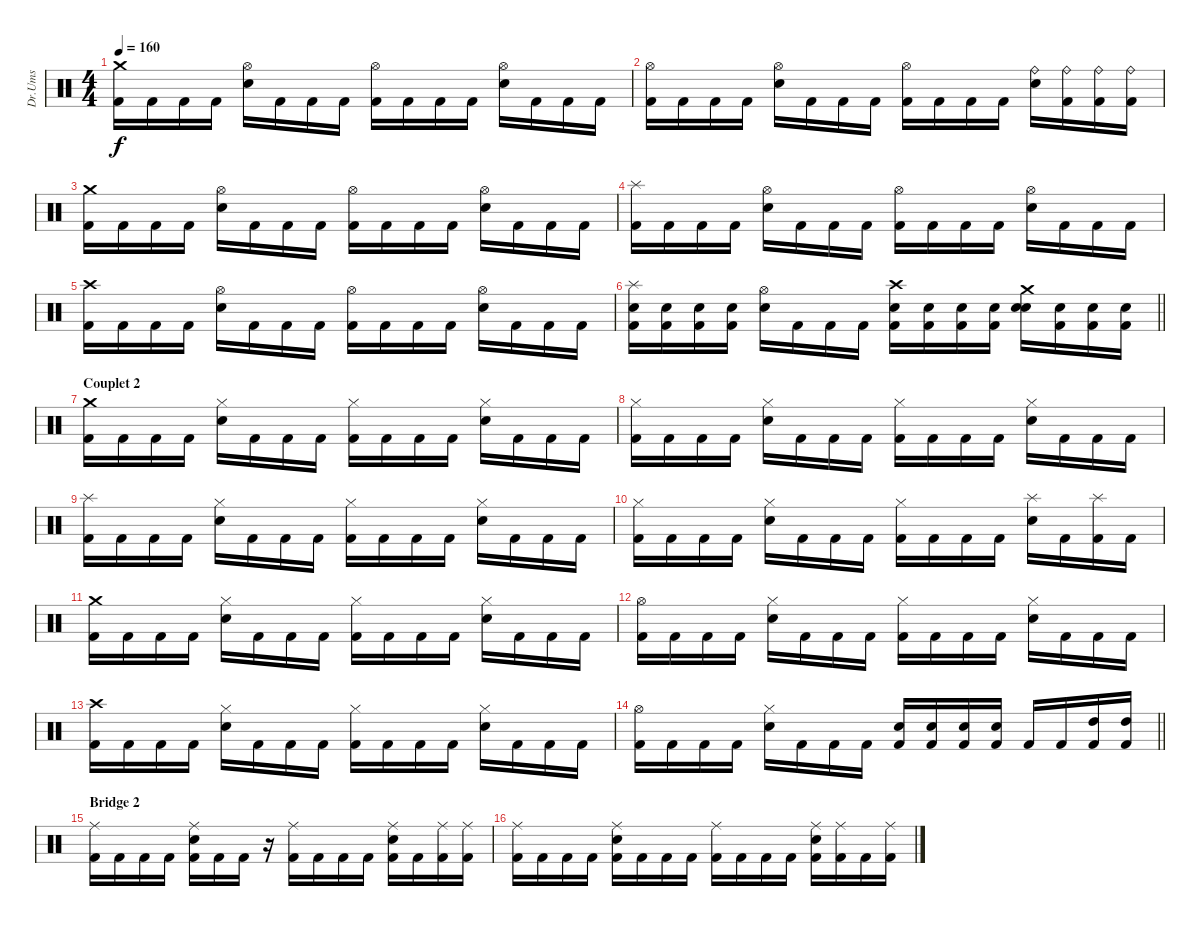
\track ("Dr.Ums" "Dr.Ums") {instrument percussion}
\staff {score}
\articulation defaults
\ts (4 4)
\tempo 160
\clef neutral
\ks c
("Kick (hit) 2" "Crash medium (hit)").16{dy f} "Kick (hit) 2".16 "Kick (hit) 2".16 "Kick (hit) 2".16 ("Snare (hit) 2" "Hi-Hat (open)").16 "Kick (hit) 2".16 "Kick (hit) 2".16 "Kick (hit) 2".16 ("Kick (hit) 2" "Hi-Hat (open)").16 "Kick (hit) 2".16 "Kick (hit) 2".16 "Kick (hit) 2".16 ("Snare (hit) 2" "Hi-Hat (open)").16 "Kick (hit) 2".16 "Kick (hit) 2".16 "Kick (hit) 2".16 |
("Kick (hit) 2" "Hi-Hat (open)").16 "Kick (hit) 2".16 "Kick (hit) 2".16 "Kick (hit) 2".16 ("Snare (hit) 2" "Hi-Hat (open)").16 "Kick (hit) 2".16 "Kick (hit) 2".16 "Kick (hit) 2".16 ("Kick (hit) 2" "Hi-Hat (open)").16 "Kick (hit) 2".16 "Kick (hit) 2".16 "Kick (hit) 2".16 ("Snare (hit) 2" "Ride (bell)").16 ("Kick (hit) 2" "Ride (bell)").16 ("Kick (hit) 2" "Ride (bell)").16 ("Kick (hit) 2" "Ride (bell)").16 |
("Kick (hit) 2" "Crash medium (hit)").16 "Kick (hit) 2".16 "Kick (hit) 2".16 "Kick (hit) 2".16 ("Snare (hit) 2" "Hi-Hat (open)").16 "Kick (hit) 2".16 "Kick (hit) 2".16 "Kick (hit) 2".16 ("Kick (hit) 2" "Hi-Hat (open)").16 "Kick (hit) 2".16 "Kick (hit) 2".16 "Kick (hit) 2".16 ("Snare (hit) 2" "Hi-Hat (open)").16 "Kick (hit) 2".16 "Kick (hit) 2".16 "Kick (hit) 2".16 |
("Kick (hit) 2" "Splash (hit)").16 "Kick (hit) 2".16 "Kick (hit) 2".16 "Kick (hit) 2".16 ("Snare (hit) 2" "Hi-Hat (open)").16 "Kick (hit) 2".16 "Kick (hit) 2".16 "Kick (hit) 2".16 ("Kick (hit) 2" "Hi-Hat (open)").16 "Kick (hit) 2".16 "Kick (hit) 2".16 "Kick (hit) 2".16 ("Snare (hit) 2" "Hi-Hat (open)").16 "Kick (hit) 2".16 "Kick (hit) 2".16 "Kick (hit) 2".16 |
("Kick (hit) 2" "Crash high (hit)").16 "Kick (hit) 2".16 "Kick (hit) 2".16 "Kick (hit) 2".16 ("Snare (hit) 2" "Hi-Hat (open)").16 "Kick (hit) 2".16 "Kick (hit) 2".16 "Kick (hit) 2".16 ("Kick (hit) 2" "Hi-Hat (open)").16 "Kick (hit) 2".16 "Kick (hit) 2".16 "Kick (hit) 2".16 ("Snare (hit) 2" "Hi-Hat (open)").16 "Kick (hit) 2".16 "Kick (hit) 2".16 "Kick (hit) 2".16 |
\barLineRight lightlight
("Kick (hit) 2" "Splash (hit)" "Snare (hit) 2").16 ("Kick (hit) 2" "Snare (hit) 2").16 ("Kick (hit) 2" "Snare (hit) 2").16 ("Kick (hit) 2" "Snare (hit) 2").16 ("Snare (hit) 2" "Hi-Hat (open)").16 "Kick (hit) 2".16 "Kick (hit) 2".16 "Kick (hit) 2".16 ("Kick (hit) 2" "Snare (hit) 2" "Crash high (hit)").16 ("Kick (hit) 2" "Snare (hit) 2").16 ("Kick (hit) 2" "Snare (hit) 2").16 ("Kick (hit) 2" "Snare (hit) 2").16 ("Snare (hit) 2" "Snare (hit) 2" "Crash medium (hit)").16 ("Kick (hit) 2" "Snare (hit) 2").16 ("Kick (hit) 2" "Snare (hit) 2").16 ("Kick (hit) 2" "Snare (hit) 2").16 |
\section ("" "Couplet 2")
("Kick (hit) 2" "Crash medium (hit)").16 "Kick (hit) 2".16 "Kick (hit) 2".16 "Kick (hit) 2".16 ("Snare (hit) 2" "Hi-Hat (closed)").16 "Kick (hit) 2".16 "Kick (hit) 2".16 "Kick (hit) 2".16 ("Kick (hit) 2" "Hi-Hat (closed)").16 "Kick (hit) 2".16 "Kick (hit) 2".16 "Kick (hit) 2".16 ("Snare (hit) 2" "Hi-Hat (closed)").16 "Kick (hit) 2".16 "Kick (hit) 2".16 "Kick (hit) 2".16 |
("Kick (hit) 2" "Hi-Hat (closed)").16 "Kick (hit) 2".16 "Kick (hit) 2".16 "Kick (hit) 2".16 ("Snare (hit) 2" "Hi-Hat (closed)").16 "Kick (hit) 2".16 "Kick (hit) 2".16 "Kick (hit) 2".16 ("Kick (hit) 2" "Hi-Hat (closed)").16 "Kick (hit) 2".16 "Kick (hit) 2".16 "Kick (hit) 2".16 ("Snare (hit) 2" "Hi-Hat (closed)").16 "Kick (hit) 2".16 "Kick (hit) 2".16 "Kick (hit) 2".16 |
("Kick (hit) 2" "Splash (hit)").16 "Kick (hit) 2".16 "Kick (hit) 2".16 "Kick (hit) 2".16 ("Snare (hit) 2" "Hi-Hat (closed)").16 "Kick (hit) 2".16 "Kick (hit) 2".16 "Kick (hit) 2".16 ("Kick (hit) 2" "Hi-Hat (closed)").16 "Kick (hit) 2".16 "Kick (hit) 2".16 "Kick (hit) 2".16 ("Snare (hit) 2" "Hi-Hat (closed)").16 "Kick (hit) 2".16 "Kick (hit) 2".16 "Kick (hit) 2".16 |
("Kick (hit) 2" "Hi-Hat (closed)").16 "Kick (hit) 2".16 "Kick (hit) 2".16 "Kick (hit) 2".16 ("Snare (hit) 2" "Hi-Hat (closed)").16 "Kick (hit) 2".16 "Kick (hit) 2".16 "Kick (hit) 2".16 ("Kick (hit) 2" "Hi-Hat (closed)").16 "Kick (hit) 2".16 "Kick (hit) 2".16 "Kick (hit) 2".16 ("Snare (hit) 2" "Splash (hit)").16 "Kick (hit) 2".16 ("Kick (hit) 2" "Splash (hit)").16 "Kick (hit) 2".16 |
("Kick (hit) 2" "Crash medium (hit)").16 "Kick (hit) 2".16 "Kick (hit) 2".16 "Kick (hit) 2".16 ("Snare (hit) 2" "Hi-Hat (closed)").16 "Kick (hit) 2".16 "Kick (hit) 2".16 "Kick (hit) 2".16 ("Kick (hit) 2" "Hi-Hat (closed)").16 "Kick (hit) 2".16 "Kick (hit) 2".16 "Kick (hit) 2".16 ("Snare (hit) 2" "Hi-Hat (closed)").16 "Kick (hit) 2".16 "Kick (hit) 2".16 "Kick (hit) 2".16 |
("Kick (hit) 2" "Hi-Hat (open)").16 "Kick (hit) 2".16 "Kick (hit) 2".16 "Kick (hit) 2".16 ("Snare (hit) 2" "Hi-Hat (closed)").16 "Kick (hit) 2".16 "Kick (hit) 2".16 "Kick (hit) 2".16 ("Kick (hit) 2" "Hi-Hat (closed)").16 "Kick (hit) 2".16 "Kick (hit) 2".16 "Kick (hit) 2".16 ("Snare (hit) 2" "Hi-Hat (closed)").16 "Kick (hit) 2".16 "Kick (hit) 2".16 "Kick (hit) 2".16 |
("Kick (hit) 2" "Crash high (hit)").16 "Kick (hit) 2".16 "Kick (hit) 2".16 "Kick (hit) 2".16 ("Snare (hit) 2" "Hi-Hat (closed)").16 "Kick (hit) 2".16 "Kick (hit) 2".16 "Kick (hit) 2".16 ("Kick (hit) 2" "Hi-Hat (closed)").16 "Kick (hit) 2".16 "Kick (hit) 2".16 "Kick (hit) 2".16 ("Snare (hit) 2" "Hi-Hat (closed)").16 "Kick (hit) 2".16 "Kick (hit) 2".16 "Kick (hit) 2".16 |
\barLineRight lightlight
("Kick (hit) 2" "Hi-Hat (open)").16 "Kick (hit) 2".16 "Kick (hit) 2".16 "Kick (hit) 2".16 ("Snare (hit) 2" "Hi-Hat (closed)").16 "Kick (hit) 2".16 "Kick (hit) 2".16 "Kick (hit) 2".16 ("Snare (hit) 2" "Kick (hit) 2").16 ("Snare (hit) 2" "Kick (hit) 2").16 ("Snare (hit) 2" "Kick (hit) 2").16 ("Snare (hit) 2" "Kick (hit) 2").16 "Kick (hit) 2".16 "Kick (hit) 2".16 ("High Tom (hit)" "Kick (hit) 2").16 ("High Tom (hit)" "Kick (hit) 2").16 |
\section ("" "Bridge 2")
("Kick (hit) 2" "Ride (middle)").16 "Kick (hit) 2".16 "Kick (hit) 2".16 "Kick (hit) 2".16 ("Kick (hit) 2" "Ride (middle)" "Snare (hit) 2").16 "Kick (hit) 2".16 "Kick (hit) 2".16 r.16 ("Kick (hit) 2" "Ride (middle)").16 "Kick (hit) 2".16 "Kick (hit) 2".16 "Kick (hit) 2".16 ("Kick (hit) 2" "Ride (middle)" "Snare (hit) 2").16 "Kick (hit) 2".16 ("Kick (hit) 2" "Ride (middle)").16 ("Kick (hit) 2" "Ride (middle)").16 |
("Kick (hit) 2" "Ride (middle)").16 "Kick (hit) 2".16 "Kick (hit) 2".16 "Kick (hit) 2".16 ("Kick (hit) 2" "Ride (middle)" "Snare (hit) 2").16 "Kick (hit) 2".16 "Kick (hit) 2".16 "Kick (hit) 2".16 ("Kick (hit) 2" "Ride (middle)").16 "Kick (hit) 2".16 "Kick (hit) 2".16 "Kick (hit) 2".16 ("Kick (hit) 2" "Ride (middle)" "Snare (hit) 2").16 ("Kick (hit) 2" "Ride (middle)").16 "Kick (hit) 2".16 ("Kick (hit) 2" "Ride (middle)").16
